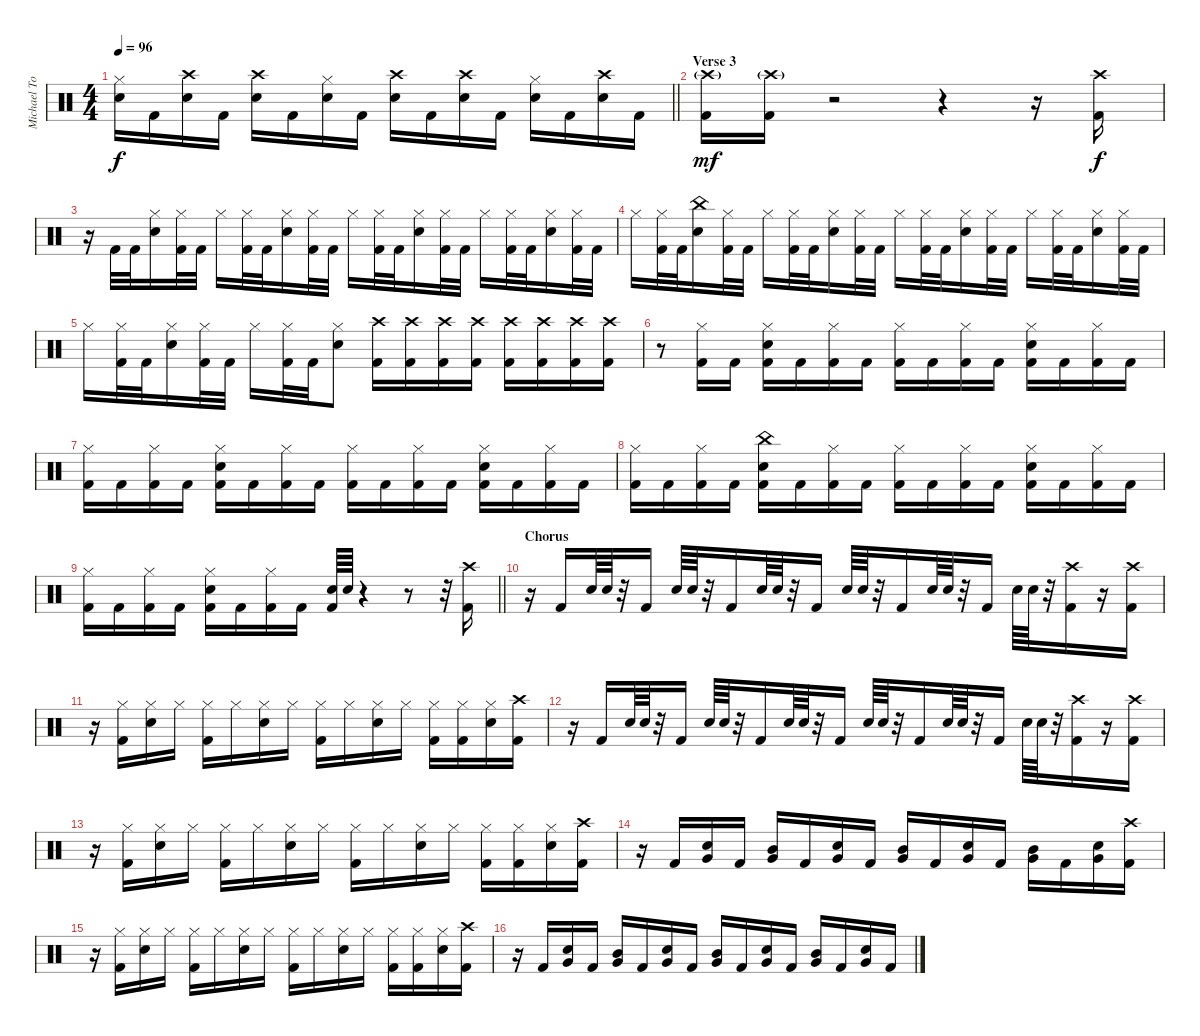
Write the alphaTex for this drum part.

\track ("Michael Tomas (Drums)" "Michael To") {instrument percussion}
\staff {score}
\articulation defaults
\ts (4 4)
\tempo 96
\clef neutral
\barLineRight lightlight
\ks c
("Hi-Hat (closed)" "Snare (hit) 2").16{dy f} "Kick (hit) 2".16 ("Crash high (hit)" "Snare (hit) 2").16 "Kick (hit) 2".16 ("Crash high (hit)" "Snare (hit) 2").16 "Kick (hit) 2".16 ("Hi-Hat (closed)" "Snare (hit) 2").16 "Kick (hit) 2".16 ("Crash high (hit)" "Snare (hit) 2").16 "Kick (hit) 2".16 ("Crash high (hit)" "Snare (hit) 2").16 "Kick (hit) 2".16 ("Hi-Hat (closed)" "Snare (hit) 2").16 "Kick (hit) 2".16 ("Crash high (hit)" "Snare (hit) 2").16 "Kick (hit) 2".16 |
\section ("" "Verse 3")
("Crash high (hit)"{g} "Kick (hit) 2").16{dy mf} ("Crash high (hit)"{g} "Kick (hit) 2").16 r.2 r.4 r.16 ("Crash high (hit)" "Kick (hit) 2").16{dy f} |
r.16 "Kick (hit) 2".32 "Kick (hit) 2".32 ("Hi-Hat (closed)" "Snare (hit) 2").16 ("Hi-Hat (closed)" "Kick (hit) 2").32 "Kick (hit) 2".32 "Hi-Hat (closed)".16 ("Hi-Hat (closed)" "Kick (hit) 2").32 "Kick (hit) 2".32 ("Hi-Hat (closed)" "Snare (hit) 2").16 ("Hi-Hat (closed)" "Kick (hit) 2").32 "Kick (hit) 2".32 "Hi-Hat (closed)".16 ("Hi-Hat (closed)" "Kick (hit) 2").32 "Kick (hit) 2".32 ("Hi-Hat (closed)" "Snare (hit) 2").16 ("Hi-Hat (closed)" "Kick (hit) 2").32 "Kick (hit) 2".32 "Hi-Hat (closed)".16 ("Hi-Hat (closed)" "Kick (hit) 2").32 "Kick (hit) 2".32 ("Hi-Hat (closed)" "Snare (hit) 2").16 ("Hi-Hat (closed)" "Kick (hit) 2").32 "Kick (hit) 2".32 |
"Hi-Hat (closed)".16 ("Hi-Hat (closed)" "Kick (hit) 2").32 "Kick (hit) 2".32 ("China (hit)" "Snare (hit) 2").16 ("Hi-Hat (closed)" "Kick (hit) 2").32 "Kick (hit) 2".32 "Hi-Hat (closed)".16 ("Hi-Hat (closed)" "Kick (hit) 2").32 "Kick (hit) 2".32 ("Hi-Hat (closed)" "Snare (hit) 2").16 ("Hi-Hat (closed)" "Kick (hit) 2").32 "Kick (hit) 2".32 "Hi-Hat (closed)".16 ("Hi-Hat (closed)" "Kick (hit) 2").32 "Kick (hit) 2".32 ("Hi-Hat (closed)" "Snare (hit) 2").16 ("Hi-Hat (closed)" "Kick (hit) 2").32 "Kick (hit) 2".32 "Hi-Hat (closed)".16 ("Hi-Hat (closed)" "Kick (hit) 2").32 "Kick (hit) 2".32 ("Hi-Hat (closed)" "Snare (hit) 2").16 ("Hi-Hat (closed)" "Kick (hit) 2").32 "Kick (hit) 2".32 |
"Hi-Hat (closed)".16 ("Hi-Hat (closed)" "Kick (hit) 2").32 "Kick (hit) 2".32 ("Hi-Hat (closed)" "Snare (hit) 2").16 ("Hi-Hat (closed)" "Kick (hit) 2").32 "Kick (hit) 2".32 "Hi-Hat (closed)".16 ("Hi-Hat (closed)" "Kick (hit) 2").32 "Kick (hit) 2".32 ("Hi-Hat (closed)" "Snare (hit) 2").8 ("Crash high (hit)" "Kick (hit) 2").16 ("Crash high (hit)" "Kick (hit) 2").16 ("Crash high (hit)" "Kick (hit) 2").16 ("Crash high (hit)" "Kick (hit) 2").16 ("Crash high (hit)" "Kick (hit) 2").16 ("Crash high (hit)" "Kick (hit) 2").16 ("Crash high (hit)" "Kick (hit) 2").16 ("Crash high (hit)" "Kick (hit) 2").16 |
r.8 ("Hi-Hat (closed)" "Kick (hit) 2").16 "Kick (hit) 2".16 ("Hi-Hat (closed)" "Snare (hit) 2" "Kick (hit) 2").16 "Kick (hit) 2".16 ("Hi-Hat (closed)" "Kick (hit) 2").16 "Kick (hit) 2".16 ("Hi-Hat (closed)" "Kick (hit) 2").16 "Kick (hit) 2".16 ("Hi-Hat (closed)" "Kick (hit) 2").16 "Kick (hit) 2".16 ("Hi-Hat (closed)" "Snare (hit) 2" "Kick (hit) 2").16 "Kick (hit) 2".16 ("Hi-Hat (closed)" "Kick (hit) 2").16 "Kick (hit) 2".16 |
("Hi-Hat (closed)" "Kick (hit) 2").16 "Kick (hit) 2".16 ("Hi-Hat (closed)" "Kick (hit) 2").16 "Kick (hit) 2".16 ("Hi-Hat (closed)" "Snare (hit) 2" "Kick (hit) 2").16 "Kick (hit) 2".16 ("Hi-Hat (closed)" "Kick (hit) 2").16 "Kick (hit) 2".16 ("Hi-Hat (closed)" "Kick (hit) 2").16 "Kick (hit) 2".16 ("Hi-Hat (closed)" "Kick (hit) 2").16 "Kick (hit) 2".16 ("Hi-Hat (closed)" "Snare (hit) 2" "Kick (hit) 2").16 "Kick (hit) 2".16 ("Hi-Hat (closed)" "Kick (hit) 2").16 "Kick (hit) 2".16 |
("Hi-Hat (closed)" "Kick (hit) 2").16 "Kick (hit) 2".16 ("Hi-Hat (closed)" "Kick (hit) 2").16 "Kick (hit) 2".16 ("China (hit)" "Snare (hit) 2" "Kick (hit) 2").16 "Kick (hit) 2".16 ("Hi-Hat (closed)" "Kick (hit) 2").16 "Kick (hit) 2".16 ("Hi-Hat (closed)" "Kick (hit) 2").16 "Kick (hit) 2".16 ("Hi-Hat (closed)" "Kick (hit) 2").16 "Kick (hit) 2".16 ("Hi-Hat (closed)" "Snare (hit) 2" "Kick (hit) 2").16 "Kick (hit) 2".16 ("Hi-Hat (closed)" "Kick (hit) 2").16 "Kick (hit) 2".16 |
\barLineRight lightlight
("Hi-Hat (closed)" "Kick (hit) 2").16 "Kick (hit) 2".16 ("Hi-Hat (closed)" "Kick (hit) 2").16 "Kick (hit) 2".16 ("Hi-Hat (closed)" "Snare (hit) 2" "Kick (hit) 2").16 "Kick (hit) 2".16 ("Hi-Hat (closed)" "Kick (hit) 2").16 "Kick (hit) 2".16 ("Snare (hit) 2" "Kick (hit) 2").64 "Snare (hit) 2".64 r.4 r.8 r.32 ("Crash high (hit)" "Kick (hit) 2").16 |
\section ("" "Chorus")
r.16 "Kick (hit) 2".16 "Snare (hit) 2".64 "Snare (hit) 2".64 r.32 "Kick (hit) 2".16 "Snare (hit) 2".64 "Snare (hit) 2".64 r.32 "Kick (hit) 2".16 "Snare (hit) 2".64 "Snare (hit) 2".64 r.32 "Kick (hit) 2".16 "Snare (hit) 2".64 "Snare (hit) 2".64 r.32 "Kick (hit) 2".16 "Snare (hit) 2".64 "Snare (hit) 2".64 r.32 "Kick (hit) 2".16 "Snare (hit) 2".64 "Snare (hit) 2".64 r.32 ("Crash high (hit)" "Kick (hit) 2").16 r.16 ("Crash high (hit)" "Kick (hit) 2").16 |
r.16 ("Hi-Hat (closed)" "Kick (hit) 2").16 ("Hi-Hat (closed)" "Snare (hit) 2").16 "Hi-Hat (closed)".16 ("Hi-Hat (closed)" "Kick (hit) 2").16 "Hi-Hat (closed)".16 ("Hi-Hat (closed)" "Snare (hit) 2").16 "Hi-Hat (closed)".16 ("Hi-Hat (closed)" "Kick (hit) 2").16 "Hi-Hat (closed)".16 ("Hi-Hat (closed)" "Snare (hit) 2").16 "Hi-Hat (closed)".16 ("Hi-Hat (closed)" "Kick (hit) 2").16 ("Hi-Hat (closed)" "Kick (hit) 2").16 ("Hi-Hat (closed)" "Snare (hit) 2").16 ("Crash high (hit)" "Kick (hit) 2").16 |
r.16 "Kick (hit) 2".16 "Snare (hit) 2".64 "Snare (hit) 2".64 r.32 "Kick (hit) 2".16 "Snare (hit) 2".64 "Snare (hit) 2".64 r.32 "Kick (hit) 2".16 "Snare (hit) 2".64 "Snare (hit) 2".64 r.32 "Kick (hit) 2".16 "Snare (hit) 2".64 "Snare (hit) 2".64 r.32 "Kick (hit) 2".16 "Snare (hit) 2".64 "Snare (hit) 2".64 r.32 "Kick (hit) 2".16 "Snare (hit) 2".64 "Snare (hit) 2".64 r.32 ("Crash high (hit)" "Kick (hit) 2").16 r.16 ("Crash high (hit)" "Kick (hit) 2").16 |
r.16 ("Hi-Hat (closed)" "Kick (hit) 2").16 ("Hi-Hat (closed)" "Snare (hit) 2").16 "Hi-Hat (closed)".16 ("Hi-Hat (closed)" "Kick (hit) 2").16 "Hi-Hat (closed)".16 ("Hi-Hat (closed)" "Snare (hit) 2").16 "Hi-Hat (closed)".16 ("Hi-Hat (closed)" "Kick (hit) 2").16 "Hi-Hat (closed)".16 ("Hi-Hat (closed)" "Snare (hit) 2").16 "Hi-Hat (closed)".16 ("Hi-Hat (closed)" "Kick (hit) 2").16 ("Hi-Hat (closed)" "Kick (hit) 2").16 ("Hi-Hat (closed)" "Snare (hit) 2").16 ("Crash high (hit)" "Kick (hit) 2").16 |
r.16 "Kick (hit) 2".16 ("Very Low Tom (hit)" "Snare (hit) 2").16 "Kick (hit) 2".16 ("Mid Tom (hit)" "Very Low Tom (hit)").16 "Kick (hit) 2".16 ("Very Low Tom (hit)" "Snare (hit) 2").16 "Kick (hit) 2".16 ("Mid Tom (hit)" "Very Low Tom (hit)").16 "Kick (hit) 2".16 ("Very Low Tom (hit)" "Snare (hit) 2").16 "Kick (hit) 2".16 ("Mid Tom (hit)" "Very Low Tom (hit)").16 "Kick (hit) 2".16 ("Very Low Tom (hit)" "Snare (hit) 2").16 ("Crash high (hit)" "Kick (hit) 2").16 |
r.16 ("Hi-Hat (closed)" "Kick (hit) 2").16 ("Hi-Hat (closed)" "Snare (hit) 2").16 "Hi-Hat (closed)".16 ("Hi-Hat (closed)" "Kick (hit) 2").16 "Hi-Hat (closed)".16 ("Hi-Hat (closed)" "Snare (hit) 2").16 "Hi-Hat (closed)".16 ("Hi-Hat (closed)" "Kick (hit) 2").16 "Hi-Hat (closed)".16 ("Hi-Hat (closed)" "Snare (hit) 2").16 "Hi-Hat (closed)".16 ("Hi-Hat (closed)" "Kick (hit) 2").16 ("Hi-Hat (closed)" "Kick (hit) 2").16 ("Hi-Hat (closed)" "Snare (hit) 2").16 ("Crash high (hit)" "Kick (hit) 2").16 |
r.16 "Kick (hit) 2".16 ("Very Low Tom (hit)" "Snare (hit) 2").16 "Kick (hit) 2".16 ("Mid Tom (hit)" "Very Low Tom (hit)").16 "Kick (hit) 2".16 ("Very Low Tom (hit)" "Snare (hit) 2").16 "Kick (hit) 2".16 ("Mid Tom (hit)" "Very Low Tom (hit)").16 "Kick (hit) 2".16 ("Very Low Tom (hit)" "Snare (hit) 2").16 "Kick (hit) 2".16 ("Mid Tom (hit)" "Very Low Tom (hit)").16 "Kick (hit) 2".16 ("Very Low Tom (hit)" "Snare (hit) 2").16 "Kick (hit) 2".16
